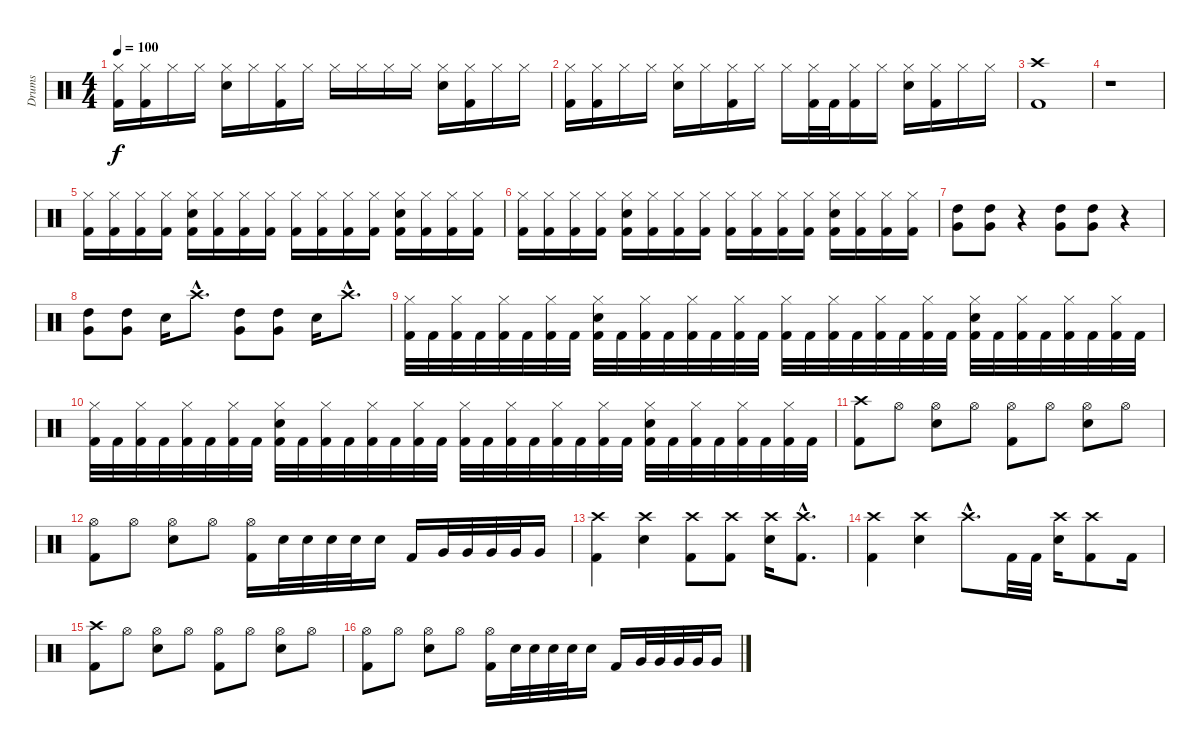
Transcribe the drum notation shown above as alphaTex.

\track ("Drums" "Drums") {instrument percussion}
\staff {score}
\articulation defaults
\ts (4 4)
\tempo 100
\clef neutral
\ks c
("Hi-Hat (closed)" "Kick (hit) 2").16{dy f} ("Hi-Hat (closed)" "Kick (hit) 2").16 "Hi-Hat (closed)".16 "Hi-Hat (closed)".16 ("Hi-Hat (closed)" "Electric Snare (hit)").16 "Hi-Hat (closed)".16 ("Hi-Hat (closed)" "Kick (hit) 2").16 "Hi-Hat (closed)".16 "Hi-Hat (closed)".16 "Hi-Hat (closed)".16 "Hi-Hat (closed)".16 "Hi-Hat (closed)".16 ("Hi-Hat (closed)" "Electric Snare (hit)").16 ("Hi-Hat (closed)" "Kick (hit) 2").16 "Hi-Hat (closed)".16 "Hi-Hat (closed)".16 |
("Hi-Hat (closed)" "Kick (hit) 2").16 ("Hi-Hat (closed)" "Kick (hit) 2").16 "Hi-Hat (closed)".16 "Hi-Hat (closed)".16 ("Hi-Hat (closed)" "Electric Snare (hit)").16 "Hi-Hat (closed)".16 ("Hi-Hat (closed)" "Kick (hit) 2").16 "Hi-Hat (closed)".16 "Hi-Hat (closed)".16 ("Hi-Hat (closed)" "Kick (hit) 2").32 "Kick (hit) 2".32 ("Hi-Hat (closed)" "Kick (hit) 2").16 "Hi-Hat (closed)".16 ("Hi-Hat (closed)" "Electric Snare (hit)").16 ("Hi-Hat (closed)" "Kick (hit) 2").16 "Hi-Hat (closed)".16 "Hi-Hat (closed)".16 |
("Crash high (hit)" "Kick (hit) 2").1 |
r.1 |
("Hi-Hat (closed)" "Kick (hit) 2").16 ("Hi-Hat (closed)" "Kick (hit) 2").16 ("Hi-Hat (closed)" "Kick (hit) 2").16 ("Hi-Hat (closed)" "Kick (hit) 2").16 ("Hi-Hat (closed)" "Electric Snare (hit)" "Kick (hit) 2").16 ("Hi-Hat (closed)" "Kick (hit) 2").16 ("Hi-Hat (closed)" "Kick (hit) 2").16 ("Hi-Hat (closed)" "Kick (hit) 2").16 ("Hi-Hat (closed)" "Kick (hit) 2").16 ("Hi-Hat (closed)" "Kick (hit) 2").16 ("Hi-Hat (closed)" "Kick (hit) 2").16 ("Hi-Hat (closed)" "Kick (hit) 2").16 ("Hi-Hat (closed)" "Electric Snare (hit)" "Kick (hit) 2").16 ("Hi-Hat (closed)" "Kick (hit) 2").16 ("Hi-Hat (closed)" "Kick (hit) 2").16 ("Hi-Hat (closed)" "Kick (hit) 2").16 |
("Hi-Hat (closed)" "Kick (hit) 2").16 ("Hi-Hat (closed)" "Kick (hit) 2").16 ("Hi-Hat (closed)" "Kick (hit) 2").16 ("Hi-Hat (closed)" "Kick (hit) 2").16 ("Hi-Hat (closed)" "Electric Snare (hit)" "Kick (hit) 2").16 ("Hi-Hat (closed)" "Kick (hit) 2").16 ("Hi-Hat (closed)" "Kick (hit) 2").16 ("Hi-Hat (closed)" "Kick (hit) 2").16 ("Hi-Hat (closed)" "Kick (hit) 2").16 ("Hi-Hat (closed)" "Kick (hit) 2").16 ("Hi-Hat (closed)" "Kick (hit) 2").16 ("Hi-Hat (closed)" "Kick (hit) 2").16 ("Hi-Hat (closed)" "Electric Snare (hit)" "Kick (hit) 2").16 ("Hi-Hat (closed)" "Kick (hit) 2").16 ("Hi-Hat (closed)" "Kick (hit) 2").16 ("Hi-Hat (closed)" "Kick (hit) 2").16 |
("High Tom (hit)" "Very Low Tom (hit)").8 ("High Tom (hit)" "Very Low Tom (hit)").8 r.4 ("High Tom (hit)" "Very Low Tom (hit)").8 ("High Tom (hit)" "Very Low Tom (hit)").8 r.4 |
("High Tom (hit)" "Very Low Tom (hit)").8 ("High Tom (hit)" "Very Low Tom (hit)").8 "Electric Snare (hit)".16 "Crash high (hit)"{hac}.8{d} ("High Tom (hit)" "Very Low Tom (hit)").8 ("High Tom (hit)" "Very Low Tom (hit)").8 "Electric Snare (hit)".16 "Crash high (hit)"{hac}.8{d} |
("Hi-Hat (closed)" "Kick (hit) 2").32 "Kick (hit) 2".32 ("Hi-Hat (closed)" "Kick (hit) 2").32 "Kick (hit) 2".32 ("Hi-Hat (closed)" "Kick (hit) 2").32 "Kick (hit) 2".32 ("Hi-Hat (closed)" "Kick (hit) 2").32 "Kick (hit) 2".32 ("Hi-Hat (closed)" "Electric Snare (hit)" "Kick (hit) 2").32 "Kick (hit) 2".32 ("Hi-Hat (closed)" "Kick (hit) 2").32 "Kick (hit) 2".32 ("Hi-Hat (closed)" "Kick (hit) 2").32 "Kick (hit) 2".32 ("Hi-Hat (closed)" "Kick (hit) 2").32 "Kick (hit) 2".32 ("Hi-Hat (closed)" "Kick (hit) 2").32 "Kick (hit) 2".32 ("Hi-Hat (closed)" "Kick (hit) 2").32 "Kick (hit) 2".32 ("Hi-Hat (closed)" "Kick (hit) 2").32 "Kick (hit) 2".32 ("Hi-Hat (closed)" "Kick (hit) 2").32 "Kick (hit) 2".32 ("Hi-Hat (closed)" "Electric Snare (hit)" "Kick (hit) 2").32 "Kick (hit) 2".32 ("Hi-Hat (closed)" "Kick (hit) 2").32 "Kick (hit) 2".32 ("Hi-Hat (closed)" "Kick (hit) 2").32 "Kick (hit) 2".32 ("Hi-Hat (closed)" "Kick (hit) 2").32 "Kick (hit) 2".32 |
("Hi-Hat (closed)" "Kick (hit) 2").32 "Kick (hit) 2".32 ("Hi-Hat (closed)" "Kick (hit) 2").32 "Kick (hit) 2".32 ("Hi-Hat (closed)" "Kick (hit) 2").32 "Kick (hit) 2".32 ("Hi-Hat (closed)" "Kick (hit) 2").32 "Kick (hit) 2".32 ("Hi-Hat (closed)" "Electric Snare (hit)" "Kick (hit) 2").32 "Kick (hit) 2".32 ("Hi-Hat (closed)" "Kick (hit) 2").32 "Kick (hit) 2".32 ("Hi-Hat (closed)" "Kick (hit) 2").32 "Kick (hit) 2".32 ("Hi-Hat (closed)" "Kick (hit) 2").32 "Kick (hit) 2".32 ("Hi-Hat (closed)" "Kick (hit) 2").32 "Kick (hit) 2".32 ("Hi-Hat (closed)" "Kick (hit) 2").32 "Kick (hit) 2".32 ("Hi-Hat (closed)" "Kick (hit) 2").32 "Kick (hit) 2".32 ("Hi-Hat (closed)" "Kick (hit) 2").32 "Kick (hit) 2".32 ("Hi-Hat (closed)" "Electric Snare (hit)" "Kick (hit) 2").32 "Kick (hit) 2".32 ("Hi-Hat (closed)" "Kick (hit) 2").32 "Kick (hit) 2".32 ("Hi-Hat (closed)" "Kick (hit) 2").32 "Kick (hit) 2".32 ("Hi-Hat (closed)" "Kick (hit) 2").32 "Kick (hit) 2".32 |
("Crash high (hit)" "Kick (hit) 2").8 "Hi-Hat (open)".8 ("Hi-Hat (open)" "Electric Snare (hit)").8 "Hi-Hat (open)".8 ("Hi-Hat (open)" "Kick (hit) 2").8 "Hi-Hat (open)".8 ("Hi-Hat (open)" "Electric Snare (hit)").8 "Hi-Hat (open)".8 |
("Hi-Hat (open)" "Kick (hit) 2").8 "Hi-Hat (open)".8 ("Hi-Hat (open)" "Electric Snare (hit)").8 "Hi-Hat (open)".8 ("Hi-Hat (open)" "Kick (hit) 2").16 "Electric Snare (hit)".32 "Electric Snare (hit)".32 "Electric Snare (hit)".32 "Electric Snare (hit)".32 "Electric Snare (hit)".16 "Kick (hit) 2".16 "Very Low Tom (hit)".32 "Very Low Tom (hit)".32 "Very Low Tom (hit)".32 "Very Low Tom (hit)".32 "Very Low Tom (hit)".16 |
("Crash high (hit)" "Kick (hit) 2").4 ("Crash high (hit)" "Electric Snare (hit)").4 ("Crash high (hit)" "Kick (hit) 2").8 ("Crash high (hit)" "Kick (hit) 2").8 ("Crash high (hit)" "Electric Snare (hit)").16 ("Crash high (hit)"{hac} "Kick (hit) 2"{hac}).8{d} |
("Crash high (hit)" "Kick (hit) 2").4 ("Crash high (hit)" "Electric Snare (hit)").4 "Crash high (hit)"{hac}.8{d} "Kick (hit) 2".32 "Kick (hit) 2".32 ("Crash high (hit)" "Electric Snare (hit)").16 ("Crash high (hit)" "Kick (hit) 2").8 "Kick (hit) 2".16 |
("Crash high (hit)" "Kick (hit) 2").8 "Hi-Hat (open)".8 ("Hi-Hat (open)" "Electric Snare (hit)").8 "Hi-Hat (open)".8 ("Hi-Hat (open)" "Kick (hit) 2").8 "Hi-Hat (open)".8 ("Hi-Hat (open)" "Electric Snare (hit)").8 "Hi-Hat (open)".8 |
("Hi-Hat (open)" "Kick (hit) 2").8 "Hi-Hat (open)".8 ("Hi-Hat (open)" "Electric Snare (hit)").8 "Hi-Hat (open)".8 ("Hi-Hat (open)" "Kick (hit) 2").16 "Electric Snare (hit)".32 "Electric Snare (hit)".32 "Electric Snare (hit)".32 "Electric Snare (hit)".32 "Electric Snare (hit)".16 "Kick (hit) 2".16 "Very Low Tom (hit)".32 "Very Low Tom (hit)".32 "Very Low Tom (hit)".32 "Very Low Tom (hit)".32 "Very Low Tom (hit)".16
